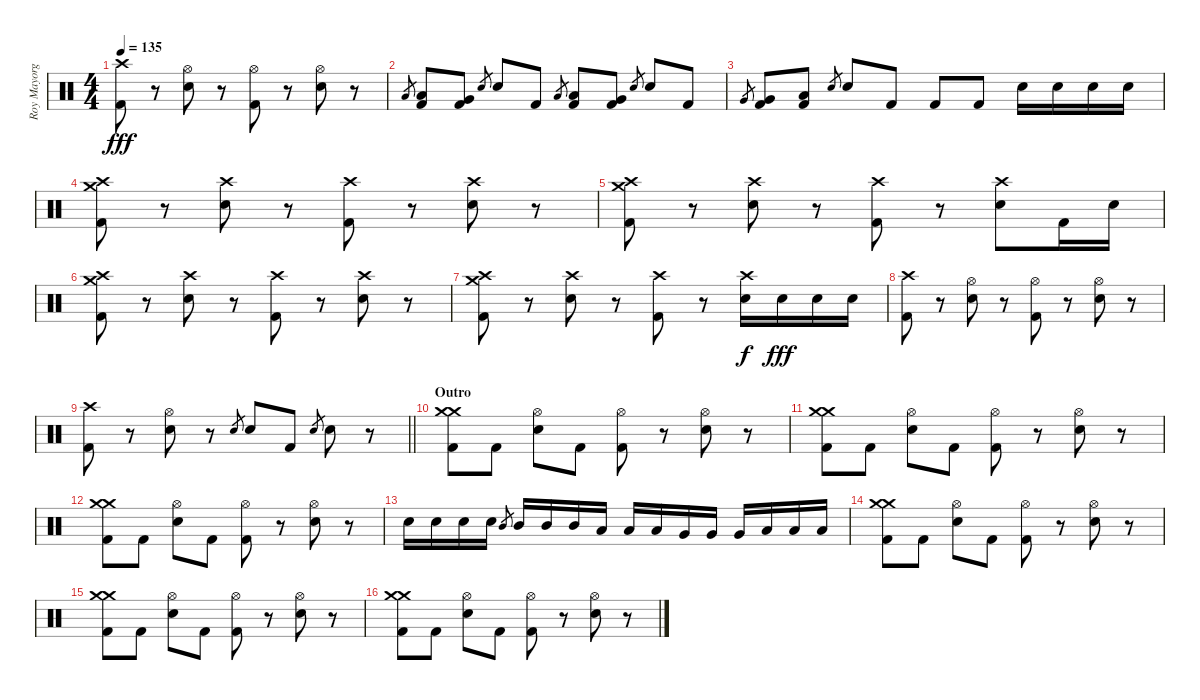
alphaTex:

\track ("Roy Mayorga" "Roy Mayorg") {instrument percussion}
\staff {score}
\articulation defaults
\ts (4 4)
\tempo 135
\clef neutral
\ks c
("Crash high (hit)" "Kick (hit) 2").8{dy fff} r.8 ("Hi-Hat (open)" "Electric Snare (hit)").8 r.8 ("Hi-Hat (open)" "Kick (hit) 2").8 r.8 ("Hi-Hat (open)" "Electric Snare (hit)").8 r.8 |
"Low Floor Tom (hit)".8{gr} ("Low Floor Tom (hit)" "Kick (hit) 2").8 ("Very Low Tom (hit)" "Kick (hit) 2").8 "Electric Snare (hit)".8{gr} "Electric Snare (hit)".8 "Kick (hit) 2".8 "Low Floor Tom (hit)".8{gr} ("Low Floor Tom (hit)" "Kick (hit) 2").8 ("Very Low Tom (hit)" "Kick (hit) 2").8 "Electric Snare (hit)".8{gr} "Electric Snare (hit)".8 "Kick (hit) 2".8 |
"Very Low Tom (hit)".8{gr} ("Very Low Tom (hit)" "Kick (hit) 2").8 ("Low Floor Tom (hit)" "Kick (hit) 2").8 "Electric Snare (hit)".8{gr} "Electric Snare (hit)".8 "Kick (hit) 2".8 "Kick (hit) 2".8 "Kick (hit) 2".8 "Electric Snare (hit)".16 "Electric Snare (hit)".16 "Electric Snare (hit)".16 "Electric Snare (hit)".16 |
("Crash medium (hit)" "Crash high (hit)" "Kick (hit) 2").8 r.8 ("Crash high (hit)" "Electric Snare (hit)").8 r.8 ("Crash high (hit)" "Kick (hit) 2").8 r.8 ("Crash high (hit)" "Electric Snare (hit)").8 r.8 |
("Crash medium (hit)" "Crash high (hit)" "Kick (hit) 2").8 r.8 ("Crash high (hit)" "Electric Snare (hit)").8 r.8 ("Crash high (hit)" "Kick (hit) 2").8 r.8 ("Crash high (hit)" "Electric Snare (hit)").8 "Kick (hit) 2".16 "Electric Snare (hit)".16 |
("Crash medium (hit)" "Crash high (hit)" "Kick (hit) 2").8 r.8 ("Crash high (hit)" "Electric Snare (hit)").8 r.8 ("Crash high (hit)" "Kick (hit) 2").8 r.8 ("Crash high (hit)" "Electric Snare (hit)").8 r.8 |
("Crash medium (hit)" "Crash high (hit)" "Kick (hit) 2").8 r.8 ("Crash high (hit)" "Electric Snare (hit)").8 r.8 ("Crash high (hit)" "Kick (hit) 2").8 r.8 ("Crash high (hit)" "Electric Snare (hit)").16{dy f} "Electric Snare (hit)".16{dy fff} "Electric Snare (hit)".16 "Electric Snare (hit)".16 |
("Crash high (hit)" "Kick (hit) 2").8 r.8 ("Hi-Hat (open)" "Electric Snare (hit)").8 r.8 ("Hi-Hat (open)" "Kick (hit) 2").8 r.8 ("Hi-Hat (open)" "Electric Snare (hit)").8 r.8 |
\barLineRight lightlight
("Crash high (hit)" "Kick (hit) 2").8 r.8 ("Hi-Hat (open)" "Electric Snare (hit)").8 r.8 "Electric Snare (hit)".8{gr} "Electric Snare (hit)".8 "Kick (hit) 2".8 "Electric Snare (hit)".8{gr} "Electric Snare (hit)".8 r.8 |
\section ("" "Outro")
("Crash medium (hit)" "Crash medium (hit)" "Kick (hit) 2").8 "Kick (hit) 2".8 ("Hi-Hat (open)" "Electric Snare (hit)").8 "Kick (hit) 2".8 ("Hi-Hat (open)" "Kick (hit) 2").8 r.8 ("Hi-Hat (open)" "Electric Snare (hit)").8 r.8 |
("Crash medium (hit)" "Crash medium (hit)" "Kick (hit) 2").8 "Kick (hit) 2".8 ("Hi-Hat (open)" "Electric Snare (hit)").8 "Kick (hit) 2".8 ("Hi-Hat (open)" "Kick (hit) 2").8 r.8 ("Hi-Hat (open)" "Electric Snare (hit)").8 r.8 |
("Crash medium (hit)" "Crash medium (hit)" "Kick (hit) 2").8 "Kick (hit) 2".8 ("Hi-Hat (open)" "Electric Snare (hit)").8 "Kick (hit) 2".8 ("Hi-Hat (open)" "Kick (hit) 2").8 r.8 ("Hi-Hat (open)" "Electric Snare (hit)").8 r.8 |
"Electric Snare (hit)".16 "Electric Snare (hit)".16 "Electric Snare (hit)".16 "Electric Snare (hit)".16 "Mid Tom (hit)".8{gr} "Mid Tom (hit)".16 "Mid Tom (hit)".16 "Mid Tom (hit)".16 "Low Tom (hit)".16 "Low Tom (hit)".16 "Low Tom (hit)".16 "Very Low Tom (hit)".16 "Very Low Tom (hit)".16 "Very Low Tom (hit)".16 "Low Floor Tom (hit)".16 "Low Floor Tom (hit)".16 "Low Floor Tom (hit)".16 |
("Crash medium (hit)" "Crash medium (hit)" "Kick (hit) 2").8 "Kick (hit) 2".8 ("Hi-Hat (open)" "Electric Snare (hit)").8 "Kick (hit) 2".8 ("Hi-Hat (open)" "Kick (hit) 2").8 r.8 ("Hi-Hat (open)" "Electric Snare (hit)").8 r.8 |
("Crash medium (hit)" "Crash medium (hit)" "Kick (hit) 2").8 "Kick (hit) 2".8 ("Hi-Hat (open)" "Electric Snare (hit)").8 "Kick (hit) 2".8 ("Hi-Hat (open)" "Kick (hit) 2").8 r.8 ("Hi-Hat (open)" "Electric Snare (hit)").8 r.8 |
("Crash medium (hit)" "Crash medium (hit)" "Kick (hit) 2").8 "Kick (hit) 2".8 ("Hi-Hat (open)" "Electric Snare (hit)").8 "Kick (hit) 2".8 ("Hi-Hat (open)" "Kick (hit) 2").8 r.8 ("Hi-Hat (open)" "Electric Snare (hit)").8 r.8
